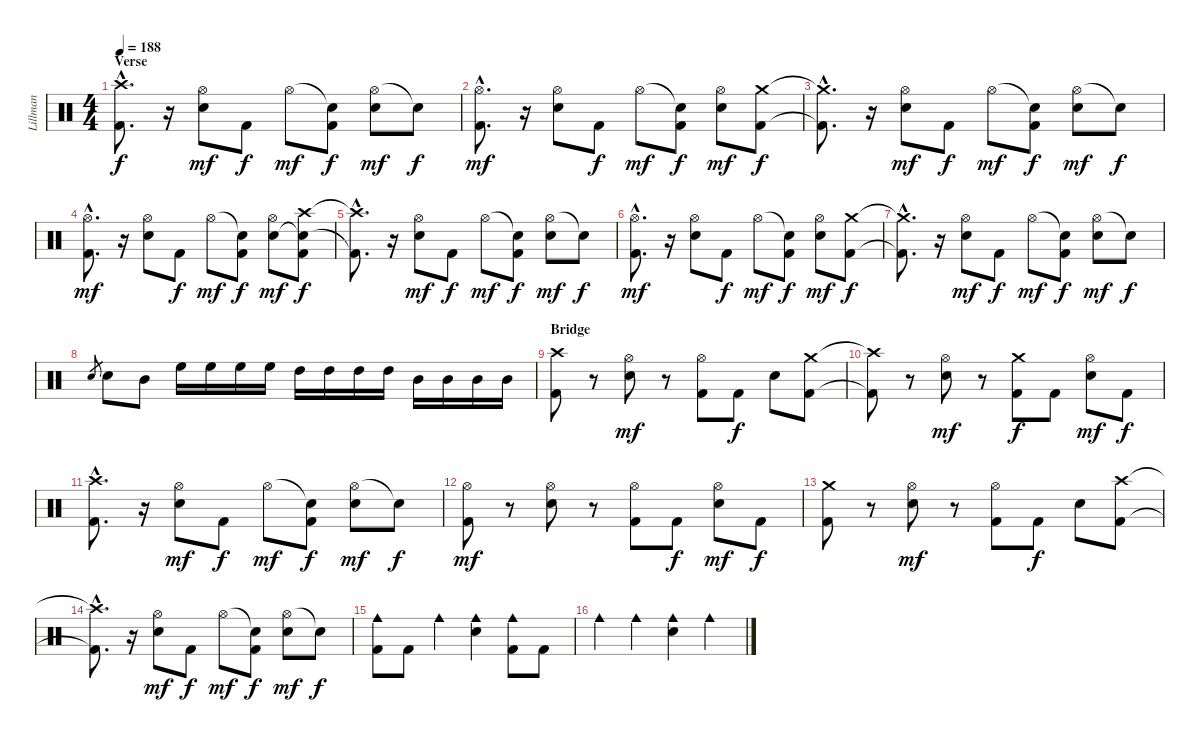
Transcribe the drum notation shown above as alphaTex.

\track ("Lillman" "Lillman") {instrument percussion}
\staff {score}
\articulation defaults
\ts (4 4)
\section ("" "Verse")
\tempo 188
\clef neutral
\ks c
("Crash high (hit)"{hac} "Kick (hit) 2"{hac}).8{d dy f} r.16 ("Hi-Hat (open)" "Snare (hit) 2").8{dy mf} "Kick (hit) 2".8{dy f} "Hi-Hat (open)".8{dy mf} ("Snare (hit)"{t} "Kick (hit) 2").8{dy f} ("Hi-Hat (open)" "Snare (hit) 2").8{dy mf} "Snare (hit)"{t}.8{dy f} |
("Hi-Hat (open)"{hac} "Kick (hit) 2"{hac}).8{d dy mf} r.16 ("Hi-Hat (open)" "Snare (hit) 2").8 "Kick (hit) 2".8{dy f} "Hi-Hat (open)".8{dy mf} ("Snare (hit)"{t} "Kick (hit) 2").8{dy f} ("Hi-Hat (open)" "Snare (hit) 2").8{dy mf} ("Crash medium (hit)" "Kick (hit) 2").8{dy f} |
("Crash medium (hit)"{hac t} "Kick (hit) 2"{hac t}).8{d} r.16 ("Hi-Hat (open)" "Snare (hit) 2").8{dy mf} "Kick (hit) 2".8{dy f} "Hi-Hat (open)".8{dy mf} ("Snare (hit)"{t} "Kick (hit) 2").8{dy f} ("Hi-Hat (open)" "Snare (hit) 2").8{dy mf} "Snare (hit)"{t}.8{dy f} |
("Hi-Hat (open)"{hac} "Kick (hit) 2"{hac}).8{d dy mf} r.16 ("Hi-Hat (open)" "Snare (hit) 2").8 "Kick (hit) 2".8{dy f} "Hi-Hat (open)".8{dy mf} ("Snare (hit)"{t} "Kick (hit) 2").8{dy f} ("Hi-Hat (open)" "Snare (hit) 2").8{dy mf} ("Crash high (hit)" "Snare (hit)"{t} "Kick (hit) 2").8{dy f} |
("Crash high (hit)"{hac t} "Kick (hit) 2"{hac t}).8{d} r.16 ("Hi-Hat (open)" "Snare (hit) 2").8{dy mf} "Kick (hit) 2".8{dy f} "Hi-Hat (open)".8{dy mf} ("Snare (hit)"{t} "Kick (hit) 2").8{dy f} ("Hi-Hat (open)" "Snare (hit) 2").8{dy mf} "Snare (hit)"{t}.8{dy f} |
("Hi-Hat (open)"{hac} "Kick (hit) 2"{hac}).8{d dy mf} r.16 ("Hi-Hat (open)" "Snare (hit) 2").8 "Kick (hit) 2".8{dy f} "Hi-Hat (open)".8{dy mf} ("Snare (hit)"{t} "Kick (hit) 2").8{dy f} ("Hi-Hat (open)" "Snare (hit) 2").8{dy mf} ("Crash medium (hit)" "Kick (hit) 2").8{dy f} |
("Crash medium (hit)"{hac t} "Kick (hit) 2"{hac t}).8{d} r.16 ("Hi-Hat (open)" "Snare (hit) 2").8{dy mf} "Kick (hit) 2".8{dy f} "Hi-Hat (open)".8{dy mf} ("Snare (hit)"{t} "Kick (hit) 2").8{dy f} ("Hi-Hat (open)" "Snare (hit) 2").8{dy mf} "Snare (hit)"{t}.8{dy f} |
"Snare (hit) 2".8{gr} "Snare (hit) 2".8 "Mid Tom (hit)".8 "High Floor Tom (hit)".16 "High Floor Tom (hit)".16 "High Floor Tom (hit)".16 "High Floor Tom (hit)".16 "High Tom (hit)".16 "High Tom (hit)".16 "High Tom (hit)".16 "High Tom (hit)".16 "Mid Tom (hit)".16 "Mid Tom (hit)".16 "Mid Tom (hit)".16 "Mid Tom (hit)".16 |
\section ("" "Bridge")
("Crash high (hit)" "Kick (hit) 2").8 r.8 ("Hi-Hat (open)" "Snare (hit) 2").8{dy mf} r.8 ("Hi-Hat (open)" "Kick (hit) 2").8 "Kick (hit) 2".8{dy f} "Snare (hit) 2".8 ("Crash medium (hit)" "Kick (hit) 2").8 |
("Crash high (hit)"{t} "Kick (hit) 2"{t}).8 r.8 ("Hi-Hat (open)" "Snare (hit) 2").8{dy mf} r.8 ("Crash medium (hit)" "Kick (hit) 2").8{dy f} "Kick (hit) 2".8 ("Hi-Hat (open)" "Snare (hit) 2").8{dy mf} "Kick (hit) 2".8{dy f} |
("Crash high (hit)"{hac} "Kick (hit) 2"{hac}).8{d} r.16 ("Hi-Hat (open)" "Snare (hit) 2").8{dy mf} "Kick (hit) 2".8{dy f} "Hi-Hat (open)".8{dy mf} ("Snare (hit)"{t} "Kick (hit) 2").8{dy f} ("Hi-Hat (open)" "Snare (hit) 2").8{dy mf} "Snare (hit)"{t}.8{dy f} |
("Hi-Hat (open)" "Kick (hit) 2").8{dy mf} r.8 ("Hi-Hat (open)" "Snare (hit) 2").8 r.8 ("Hi-Hat (open)" "Kick (hit) 2").8 "Kick (hit) 2".8{dy f} ("Hi-Hat (open)" "Snare (hit) 2").8{dy mf} "Kick (hit) 2".8{dy f} |
("Crash medium (hit)" "Kick (hit) 2").8 r.8 ("Hi-Hat (open)" "Snare (hit) 2").8{dy mf} r.8 ("Hi-Hat (open)" "Kick (hit) 2").8 "Kick (hit) 2".8{dy f} "Snare (hit) 2".8 ("Crash high (hit)" "Kick (hit) 2").8 |
("Crash high (hit)"{hac t} "Kick (hit) 2"{hac t}).8{d} r.16 ("Hi-Hat (open)" "Snare (hit) 2").8{dy mf} "Kick (hit) 2".8{dy f} "Hi-Hat (open)".8{dy mf} ("Snare (hit)"{t} "Kick (hit) 2").8{dy f} ("Hi-Hat (open)" "Snare (hit) 2").8{dy mf} "Snare (hit)"{t}.8{dy f} |
("Cowbell medium (hit)" "Kick (hit) 2").8 "Kick (hit) 2".8 "Cowbell medium (hit)".4 ("Cowbell medium (hit)" "Snare (hit) 2").4 ("Cowbell medium (hit)" "Kick (hit) 2").8 "Kick (hit) 2".8 |
"Cowbell medium (hit)".4 "Cowbell medium (hit)".4 ("Cowbell medium (hit)" "Snare (hit) 2").4 "Cowbell medium (hit)".4
